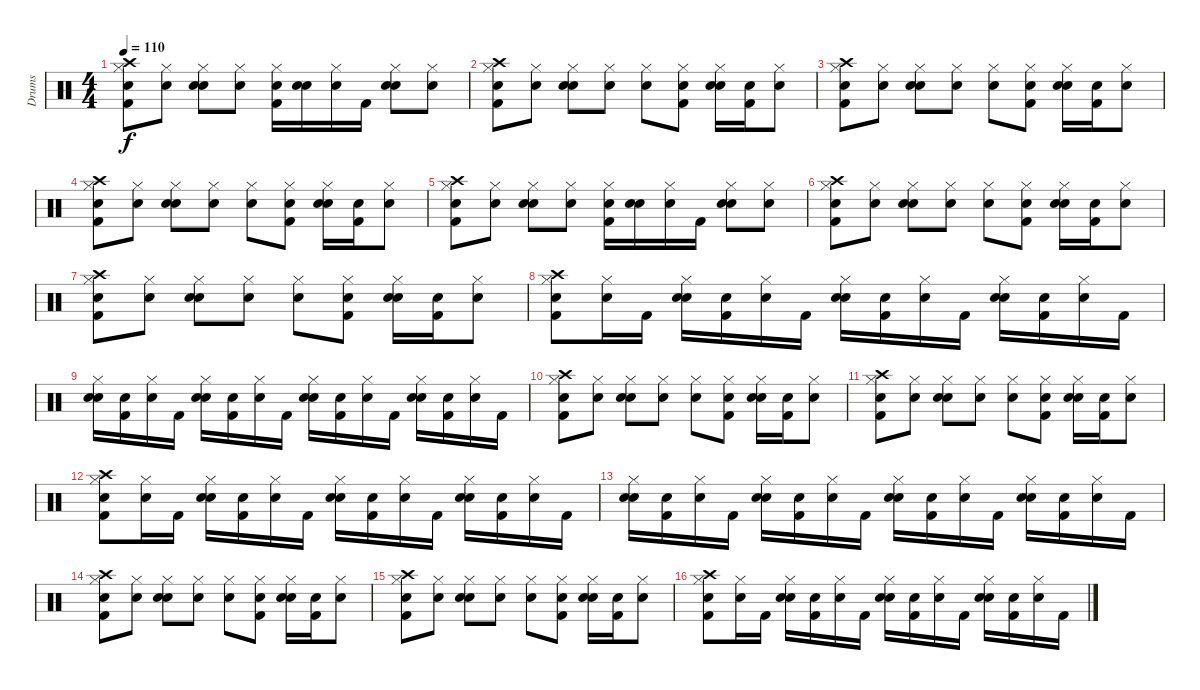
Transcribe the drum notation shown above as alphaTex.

\track ("Drums" "Drums") {instrument percussion}
\staff {score}
\articulation defaults
\ts (4 4)
\tempo 110
\clef neutral
\ks c
("Snare (hit)" "Kick (hit) 2" "Hi-Hat (closed)" "Crash high (hit)").8{dy f} ("Snare (hit)" "Hi-Hat (closed)").8 ("Snare (hit)" "Snare (hit) 2" "Hi-Hat (closed)").8 ("Snare (hit)" "Hi-Hat (closed)").8 ("Snare (hit)" "Kick (hit) 2" "Hi-Hat (closed)").16 ("Snare (hit)" "Snare (hit) 2").16 ("Snare (hit)" "Hi-Hat (closed)").16 "Kick (hit) 2".16 ("Snare (hit)" "Snare (hit) 2" "Hi-Hat (closed)").8 ("Snare (hit)" "Hi-Hat (closed)").8 |
("Snare (hit)" "Kick (hit) 2" "Hi-Hat (closed)" "Crash high (hit)").8 ("Snare (hit)" "Hi-Hat (closed)").8 ("Snare (hit)" "Snare (hit) 2" "Hi-Hat (closed)").8 ("Snare (hit)" "Hi-Hat (closed)").8 ("Snare (hit)" "Hi-Hat (closed)").8 ("Snare (hit)" "Kick (hit) 2" "Hi-Hat (closed)").8 ("Snare (hit)" "Snare (hit) 2" "Hi-Hat (closed)").16 ("Snare (hit)" "Kick (hit) 2").16 ("Snare (hit)" "Hi-Hat (closed)").8 |
("Snare (hit)" "Kick (hit) 2" "Hi-Hat (closed)" "Crash high (hit)").8 ("Snare (hit)" "Hi-Hat (closed)").8 ("Snare (hit)" "Snare (hit) 2" "Hi-Hat (closed)").8 ("Snare (hit)" "Hi-Hat (closed)").8 ("Snare (hit)" "Hi-Hat (closed)").8 ("Snare (hit)" "Kick (hit) 2" "Hi-Hat (closed)").8 ("Snare (hit)" "Snare (hit) 2" "Hi-Hat (closed)").16 ("Snare (hit)" "Kick (hit) 2").16 ("Snare (hit)" "Hi-Hat (closed)").8 |
("Snare (hit)" "Kick (hit) 2" "Hi-Hat (closed)" "Crash high (hit)").8 ("Snare (hit)" "Hi-Hat (closed)").8 ("Snare (hit)" "Snare (hit) 2" "Hi-Hat (closed)").8 ("Snare (hit)" "Hi-Hat (closed)").8 ("Snare (hit)" "Hi-Hat (closed)").8 ("Snare (hit)" "Kick (hit) 2" "Hi-Hat (closed)").8 ("Snare (hit)" "Snare (hit) 2" "Hi-Hat (closed)").16 ("Snare (hit)" "Kick (hit) 2").16 ("Snare (hit)" "Hi-Hat (closed)").8 |
("Snare (hit)" "Kick (hit) 2" "Hi-Hat (closed)" "Crash high (hit)").8 ("Snare (hit)" "Hi-Hat (closed)").8 ("Snare (hit)" "Snare (hit) 2" "Hi-Hat (closed)").8 ("Snare (hit)" "Hi-Hat (closed)").8 ("Snare (hit)" "Kick (hit) 2" "Hi-Hat (closed)").16 ("Snare (hit)" "Snare (hit) 2").16 ("Snare (hit)" "Hi-Hat (closed)").16 "Kick (hit) 2".16 ("Snare (hit)" "Snare (hit) 2" "Hi-Hat (closed)").8 ("Snare (hit)" "Hi-Hat (closed)").8 |
("Snare (hit)" "Kick (hit) 2" "Hi-Hat (closed)" "Crash high (hit)").8 ("Snare (hit)" "Hi-Hat (closed)").8 ("Snare (hit)" "Snare (hit) 2" "Hi-Hat (closed)").8 ("Snare (hit)" "Hi-Hat (closed)").8 ("Snare (hit)" "Hi-Hat (closed)").8 ("Snare (hit)" "Kick (hit) 2" "Hi-Hat (closed)").8 ("Snare (hit)" "Snare (hit) 2" "Hi-Hat (closed)").16 ("Snare (hit)" "Kick (hit) 2").16 ("Snare (hit)" "Hi-Hat (closed)").8 |
("Snare (hit)" "Kick (hit) 2" "Hi-Hat (closed)" "Crash high (hit)").8 ("Snare (hit)" "Hi-Hat (closed)").8 ("Snare (hit)" "Snare (hit) 2" "Hi-Hat (closed)").8 ("Snare (hit)" "Hi-Hat (closed)").8 ("Snare (hit)" "Hi-Hat (closed)").8 ("Snare (hit)" "Kick (hit) 2" "Hi-Hat (closed)").8 ("Snare (hit)" "Snare (hit) 2" "Hi-Hat (closed)").16 ("Snare (hit)" "Kick (hit) 2").16 ("Snare (hit)" "Hi-Hat (closed)").8 |
("Snare (hit)" "Kick (hit) 2" "Hi-Hat (closed)" "Crash high (hit)").8 ("Snare (hit)" "Hi-Hat (closed)").16 "Kick (hit) 2".16 ("Snare (hit)" "Snare (hit) 2" "Hi-Hat (closed)").16 ("Snare (hit)" "Kick (hit) 2").16 ("Snare (hit)" "Hi-Hat (closed)").16 "Kick (hit) 2".16 ("Snare (hit)" "Snare (hit) 2" "Hi-Hat (closed)").16 ("Snare (hit)" "Kick (hit) 2").16 ("Snare (hit)" "Hi-Hat (closed)").16 "Kick (hit) 2".16 ("Snare (hit)" "Snare (hit) 2" "Hi-Hat (closed)").16 ("Snare (hit)" "Kick (hit) 2").16 ("Snare (hit)" "Hi-Hat (closed)").16 "Kick (hit) 2".16 |
("Snare (hit)" "Snare (hit) 2" "Hi-Hat (closed)").16 ("Snare (hit)" "Kick (hit) 2").16 ("Snare (hit)" "Hi-Hat (closed)").16 "Kick (hit) 2".16 ("Snare (hit)" "Snare (hit) 2" "Hi-Hat (closed)").16 ("Snare (hit)" "Kick (hit) 2").16 ("Snare (hit)" "Hi-Hat (closed)").16 "Kick (hit) 2".16 ("Snare (hit)" "Snare (hit) 2" "Hi-Hat (closed)").16 ("Snare (hit)" "Kick (hit) 2").16 ("Snare (hit)" "Hi-Hat (closed)").16 "Kick (hit) 2".16 ("Snare (hit)" "Snare (hit) 2" "Hi-Hat (closed)").16 ("Snare (hit)" "Kick (hit) 2").16 ("Snare (hit)" "Hi-Hat (closed)").16 "Kick (hit) 2".16 |
("Snare (hit)" "Kick (hit) 2" "Hi-Hat (closed)" "Crash high (hit)").8 ("Snare (hit)" "Hi-Hat (closed)").8 ("Snare (hit)" "Snare (hit) 2" "Hi-Hat (closed)").8 ("Snare (hit)" "Hi-Hat (closed)").8 ("Snare (hit)" "Hi-Hat (closed)").8 ("Snare (hit)" "Kick (hit) 2" "Hi-Hat (closed)").8 ("Snare (hit)" "Snare (hit) 2" "Hi-Hat (closed)").16 ("Snare (hit)" "Kick (hit) 2").16 ("Snare (hit)" "Hi-Hat (closed)").8 |
("Snare (hit)" "Kick (hit) 2" "Hi-Hat (closed)" "Crash high (hit)").8 ("Snare (hit)" "Hi-Hat (closed)").8 ("Snare (hit)" "Snare (hit) 2" "Hi-Hat (closed)").8 ("Snare (hit)" "Hi-Hat (closed)").8 ("Snare (hit)" "Hi-Hat (closed)").8 ("Snare (hit)" "Kick (hit) 2" "Hi-Hat (closed)").8 ("Snare (hit)" "Snare (hit) 2" "Hi-Hat (closed)").16 ("Snare (hit)" "Kick (hit) 2").16 ("Snare (hit)" "Hi-Hat (closed)").8 |
("Snare (hit)" "Kick (hit) 2" "Hi-Hat (closed)" "Crash high (hit)").8 ("Snare (hit)" "Hi-Hat (closed)").16 "Kick (hit) 2".16 ("Snare (hit)" "Snare (hit) 2" "Hi-Hat (closed)").16 ("Snare (hit)" "Kick (hit) 2").16 ("Snare (hit)" "Hi-Hat (closed)").16 "Kick (hit) 2".16 ("Snare (hit)" "Snare (hit) 2" "Hi-Hat (closed)").16 ("Snare (hit)" "Kick (hit) 2").16 ("Snare (hit)" "Hi-Hat (closed)").16 "Kick (hit) 2".16 ("Snare (hit)" "Snare (hit) 2" "Hi-Hat (closed)").16 ("Snare (hit)" "Kick (hit) 2").16 ("Snare (hit)" "Hi-Hat (closed)").16 "Kick (hit) 2".16 |
("Snare (hit)" "Snare (hit) 2" "Hi-Hat (closed)").16 ("Snare (hit)" "Kick (hit) 2").16 ("Snare (hit)" "Hi-Hat (closed)").16 "Kick (hit) 2".16 ("Snare (hit)" "Snare (hit) 2" "Hi-Hat (closed)").16 ("Snare (hit)" "Kick (hit) 2").16 ("Snare (hit)" "Hi-Hat (closed)").16 "Kick (hit) 2".16 ("Snare (hit)" "Snare (hit) 2" "Hi-Hat (closed)").16 ("Snare (hit)" "Kick (hit) 2").16 ("Snare (hit)" "Hi-Hat (closed)").16 "Kick (hit) 2".16 ("Snare (hit)" "Snare (hit) 2" "Hi-Hat (closed)").16 ("Snare (hit)" "Kick (hit) 2").16 ("Snare (hit)" "Hi-Hat (closed)").16 "Kick (hit) 2".16 |
("Snare (hit)" "Kick (hit) 2" "Hi-Hat (closed)" "Crash high (hit)").8 ("Snare (hit)" "Hi-Hat (closed)").8 ("Snare (hit)" "Snare (hit) 2" "Hi-Hat (closed)").8 ("Snare (hit)" "Hi-Hat (closed)").8 ("Snare (hit)" "Hi-Hat (closed)").8 ("Snare (hit)" "Kick (hit) 2" "Hi-Hat (closed)").8 ("Snare (hit)" "Snare (hit) 2" "Hi-Hat (closed)").16 ("Snare (hit)" "Kick (hit) 2").16 ("Snare (hit)" "Hi-Hat (closed)").8 |
("Snare (hit)" "Kick (hit) 2" "Hi-Hat (closed)" "Crash high (hit)").8 ("Snare (hit)" "Hi-Hat (closed)").8 ("Snare (hit)" "Snare (hit) 2" "Hi-Hat (closed)").8 ("Snare (hit)" "Hi-Hat (closed)").8 ("Snare (hit)" "Hi-Hat (closed)").8 ("Snare (hit)" "Kick (hit) 2" "Hi-Hat (closed)").8 ("Snare (hit)" "Snare (hit) 2" "Hi-Hat (closed)").16 ("Snare (hit)" "Kick (hit) 2").16 ("Snare (hit)" "Hi-Hat (closed)").8 |
("Snare (hit)" "Kick (hit) 2" "Hi-Hat (closed)" "Crash high (hit)").8 ("Snare (hit)" "Hi-Hat (closed)").16 "Kick (hit) 2".16 ("Snare (hit)" "Snare (hit) 2" "Hi-Hat (closed)").16 ("Snare (hit)" "Kick (hit) 2").16 ("Snare (hit)" "Hi-Hat (closed)").16 "Kick (hit) 2".16 ("Snare (hit)" "Snare (hit) 2" "Hi-Hat (closed)").16 ("Snare (hit)" "Kick (hit) 2").16 ("Snare (hit)" "Hi-Hat (closed)").16 "Kick (hit) 2".16 ("Snare (hit)" "Snare (hit) 2" "Hi-Hat (closed)").16 ("Snare (hit)" "Kick (hit) 2").16 ("Snare (hit)" "Hi-Hat (closed)").16 "Kick (hit) 2".16
